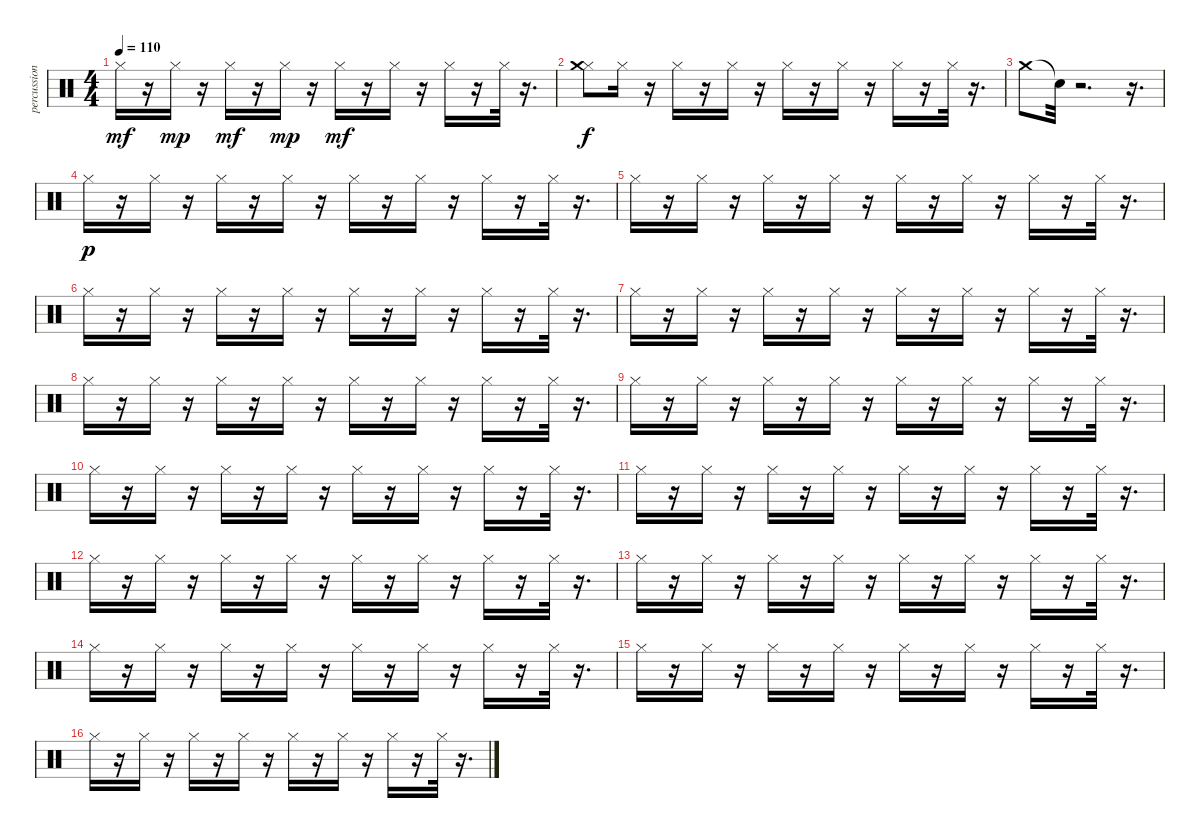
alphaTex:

\track ("percussions 2" "percussion") {instrument percussion}
\staff {score}
\articulation defaults
\ts (4 4)
\tempo 110
\clef neutral
\ks c "Hi-Hat (closed)".16{dy mf}
r.16 "Hi-Hat (closed)".16{dy mp} r.16 "Hi-Hat (closed)".16{dy mf} r.16 "Hi-Hat (closed)".16{dy mp} r.16 "Hi-Hat (closed)".16{dy mf} r.16 "Hi-Hat (closed)".16 r.16 "Hi-Hat (closed)".16 r.16 "Hi-Hat (closed)".32 r.16{d} |
("Hi-Hat (closed)" "Crash medium (hit)").8{dy f} "Hi-Hat (closed)".16 r.16 "Hi-Hat (closed)".16 r.16 "Hi-Hat (closed)".16 r.16 "Hi-Hat (closed)".16 r.16 "Hi-Hat (closed)".16 r.16 "Hi-Hat (closed)".16 r.16 "Hi-Hat (closed)".32 r.16{d} |
"Crash medium (hit)".8 "Snare (hit)"{t}.32 r.2{d} r.16{d} |
"Hi-Hat (closed)".16{dy p} r.16 "Hi-Hat (closed)".16 r.16 "Hi-Hat (closed)".16 r.16 "Hi-Hat (closed)".16 r.16 "Hi-Hat (closed)".16 r.16 "Hi-Hat (closed)".16 r.16 "Hi-Hat (closed)".16 r.16 "Hi-Hat (closed)".32 r.16{d} |
"Hi-Hat (closed)".16 r.16 "Hi-Hat (closed)".16 r.16 "Hi-Hat (closed)".16 r.16 "Hi-Hat (closed)".16 r.16 "Hi-Hat (closed)".16 r.16 "Hi-Hat (closed)".16 r.16 "Hi-Hat (closed)".16 r.16 "Hi-Hat (closed)".32 r.16{d} |
"Hi-Hat (closed)".16 r.16 "Hi-Hat (closed)".16 r.16 "Hi-Hat (closed)".16 r.16 "Hi-Hat (closed)".16 r.16 "Hi-Hat (closed)".16 r.16 "Hi-Hat (closed)".16 r.16 "Hi-Hat (closed)".16 r.16 "Hi-Hat (closed)".32 r.16{d} |
"Hi-Hat (closed)".16 r.16 "Hi-Hat (closed)".16 r.16 "Hi-Hat (closed)".16 r.16 "Hi-Hat (closed)".16 r.16 "Hi-Hat (closed)".16 r.16 "Hi-Hat (closed)".16 r.16 "Hi-Hat (closed)".16 r.16 "Hi-Hat (closed)".32 r.16{d} |
"Hi-Hat (closed)".16 r.16 "Hi-Hat (closed)".16 r.16 "Hi-Hat (closed)".16 r.16 "Hi-Hat (closed)".16 r.16 "Hi-Hat (closed)".16 r.16 "Hi-Hat (closed)".16 r.16 "Hi-Hat (closed)".16 r.16 "Hi-Hat (closed)".32 r.16{d} |
"Hi-Hat (closed)".16 r.16 "Hi-Hat (closed)".16 r.16 "Hi-Hat (closed)".16 r.16 "Hi-Hat (closed)".16 r.16 "Hi-Hat (closed)".16 r.16 "Hi-Hat (closed)".16 r.16 "Hi-Hat (closed)".16 r.16 "Hi-Hat (closed)".32 r.16{d} |
"Hi-Hat (closed)".16 r.16 "Hi-Hat (closed)".16 r.16 "Hi-Hat (closed)".16 r.16 "Hi-Hat (closed)".16 r.16 "Hi-Hat (closed)".16 r.16 "Hi-Hat (closed)".16 r.16 "Hi-Hat (closed)".16 r.16 "Hi-Hat (closed)".32 r.16{d} |
"Hi-Hat (closed)".16 r.16 "Hi-Hat (closed)".16 r.16 "Hi-Hat (closed)".16 r.16 "Hi-Hat (closed)".16 r.16 "Hi-Hat (closed)".16 r.16 "Hi-Hat (closed)".16 r.16 "Hi-Hat (closed)".16 r.16 "Hi-Hat (closed)".32 r.16{d} |
"Hi-Hat (closed)".16 r.16 "Hi-Hat (closed)".16 r.16 "Hi-Hat (closed)".16 r.16 "Hi-Hat (closed)".16 r.16 "Hi-Hat (closed)".16 r.16 "Hi-Hat (closed)".16 r.16 "Hi-Hat (closed)".16 r.16 "Hi-Hat (closed)".32 r.16{d} |
"Hi-Hat (closed)".16 r.16 "Hi-Hat (closed)".16 r.16 "Hi-Hat (closed)".16 r.16 "Hi-Hat (closed)".16 r.16 "Hi-Hat (closed)".16 r.16 "Hi-Hat (closed)".16 r.16 "Hi-Hat (closed)".16 r.16 "Hi-Hat (closed)".32 r.16{d} |
"Hi-Hat (closed)".16 r.16 "Hi-Hat (closed)".16 r.16 "Hi-Hat (closed)".16 r.16 "Hi-Hat (closed)".16 r.16 "Hi-Hat (closed)".16 r.16 "Hi-Hat (closed)".16 r.16 "Hi-Hat (closed)".16 r.16 "Hi-Hat (closed)".32 r.16{d} |
"Hi-Hat (closed)".16 r.16 "Hi-Hat (closed)".16 r.16 "Hi-Hat (closed)".16 r.16 "Hi-Hat (closed)".16 r.16 "Hi-Hat (closed)".16 r.16 "Hi-Hat (closed)".16 r.16 "Hi-Hat (closed)".16 r.16 "Hi-Hat (closed)".32 r.16{d} |
"Hi-Hat (closed)".16 r.16 "Hi-Hat (closed)".16 r.16 "Hi-Hat (closed)".16 r.16 "Hi-Hat (closed)".16 r.16 "Hi-Hat (closed)".16 r.16 "Hi-Hat (closed)".16 r.16 "Hi-Hat (closed)".16 r.16 "Hi-Hat (closed)".32 r.16{d}
